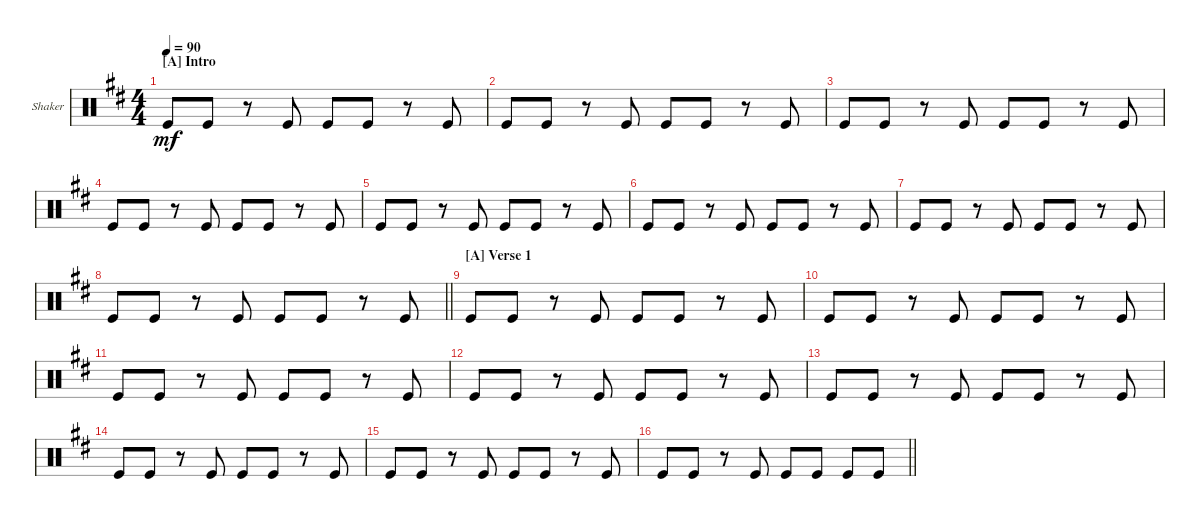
\defaultSystemsLayout 4
\bracketExtendMode groupsimilarinstruments
\firstSystemTrackNameOrientation horizontal
\otherSystemsTrackNameOrientation horizontal
\track ("Shaker" "Shaker") {instrument percussion}
\staff {score}
\articulation defaults
\ts (4 4)
\section ("A" "Intro")
\tempo 90
\clef neutral
\scale
0.318182
\ks d "Kick (hit)".8{dy mf} "Kick (hit)".8
r.8 "Kick (hit)".8 "Kick (hit)".8 "Kick (hit)".8 r.8 "Kick (hit)".8 |
\scale
0.227273 "Kick (hit)".8 "Kick (hit)".8 r.8 "Kick (hit)".8 "Kick (hit)".8 "Kick (hit)".8 r.8 "Kick (hit)".8 |
\scale
0.227273 "Kick (hit)".8 "Kick (hit)".8 r.8 "Kick (hit)".8 "Kick (hit)".8 "Kick (hit)".8 r.8 "Kick (hit)".8 |
\scale
0.227273 "Kick (hit)".8 "Kick (hit)".8 r.8 "Kick (hit)".8 "Kick (hit)".8 "Kick (hit)".8 r.8 "Kick (hit)".8 |
\scale
0.25 "Kick (hit)".8 "Kick (hit)".8 r.8 "Kick (hit)".8 "Kick (hit)".8 "Kick (hit)".8 r.8 "Kick (hit)".8 |
\scale
0.25 "Kick (hit)".8 "Kick (hit)".8 r.8 "Kick (hit)".8 "Kick (hit)".8 "Kick (hit)".8 r.8 "Kick (hit)".8 |
\scale
0.25 "Kick (hit)".8 "Kick (hit)".8 r.8 "Kick (hit)".8 "Kick (hit)".8 "Kick (hit)".8 r.8 "Kick (hit)".8 |
\scale
0.25
\barLineRight lightlight "Kick (hit)".8 "Kick (hit)".8
r.8 "Kick (hit)".8 "Kick (hit)".8 "Kick (hit)".8 r.8 "Kick (hit)".8 |
\section ("A" "Verse 1")
\scale
0.25 "Kick (hit)".8 "Kick (hit)".8 r.8 "Kick (hit)".8 "Kick (hit)".8 "Kick (hit)".8 r.8 "Kick (hit)".8 |
\scale
0.25 "Kick (hit)".8 "Kick (hit)".8 r.8 "Kick (hit)".8 "Kick (hit)".8 "Kick (hit)".8 r.8 "Kick (hit)".8 |
\scale
0.25 "Kick (hit)".8 "Kick (hit)".8 r.8 "Kick (hit)".8 "Kick (hit)".8 "Kick (hit)".8 r.8 "Kick (hit)".8 |
\scale
0.25 "Kick (hit)".8 "Kick (hit)".8 r.8 "Kick (hit)".8 "Kick (hit)".8 "Kick (hit)".8 r.8 "Kick (hit)".8 |
\scale
0.25 "Kick (hit)".8 "Kick (hit)".8 r.8 "Kick (hit)".8 "Kick (hit)".8 "Kick (hit)".8 r.8 "Kick (hit)".8 |
\scale
0.25 "Kick (hit)".8 "Kick (hit)".8 r.8 "Kick (hit)".8 "Kick (hit)".8 "Kick (hit)".8 r.8 "Kick (hit)".8 |
\scale
0.25 "Kick (hit)".8 "Kick (hit)".8 r.8 "Kick (hit)".8 "Kick (hit)".8 "Kick (hit)".8 r.8 "Kick (hit)".8 |
\scale
0.25
\barLineRight lightlight "Kick (hit)".8 "Kick (hit)".8
r.8 "Kick (hit)".8 "Kick (hit)".8 "Kick (hit)".8 "Kick (hit)".8 "Kick (hit)".8
